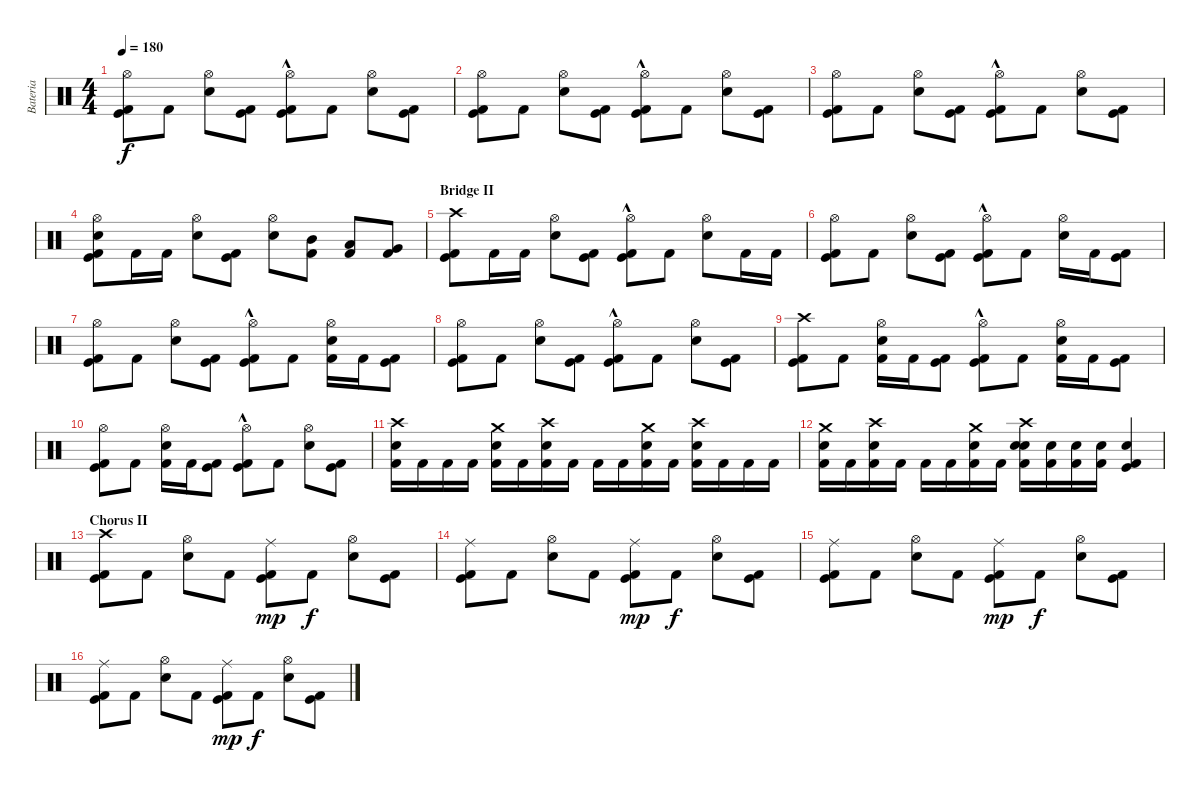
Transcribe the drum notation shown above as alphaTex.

\track ("Bateria" "Bateria") {instrument percussion}
\staff {score}
\articulation defaults
\ts (4 4)
\tempo 180
\clef neutral
\ks c
("Hi-Hat (open)" "Kick (hit)" "Kick (hit) 2").8{dy f} "Kick (hit) 2".8 ("Hi-Hat (open)" "Snare (hit) 2").8 ("Kick (hit)" "Kick (hit) 2").8 ("Hi-Hat (open)"{hac} "Kick (hit)" "Kick (hit) 2").8 "Kick (hit) 2".8 ("Hi-Hat (open)" "Snare (hit) 2").8 ("Kick (hit)" "Kick (hit) 2").8 |
("Hi-Hat (open)" "Kick (hit)" "Kick (hit) 2").8 "Kick (hit) 2".8 ("Hi-Hat (open)" "Snare (hit) 2").8 ("Kick (hit)" "Kick (hit) 2").8 ("Hi-Hat (open)"{hac} "Kick (hit)" "Kick (hit) 2").8 "Kick (hit) 2".8 ("Hi-Hat (open)" "Snare (hit) 2").8 ("Kick (hit)" "Kick (hit) 2").8 |
("Hi-Hat (open)" "Kick (hit)" "Kick (hit) 2").8 "Kick (hit) 2".8 ("Hi-Hat (open)" "Snare (hit) 2").8 ("Kick (hit)" "Kick (hit) 2").8 ("Hi-Hat (open)"{hac} "Kick (hit)" "Kick (hit) 2").8 "Kick (hit) 2".8 ("Hi-Hat (open)" "Snare (hit) 2").8 ("Kick (hit)" "Kick (hit) 2").8 |
("Hi-Hat (open)" "Electric Snare (hit)" "Kick (hit)" "Kick (hit) 2").8 "Kick (hit) 2".16 "Kick (hit) 2".16 ("Hi-Hat (open)" "Electric Snare (hit)").8 ("Kick (hit)" "Kick (hit) 2").8 ("Hi-Hat (open)" "Snare (hit) 2").8 ("Mid Tom (hit)" "Kick (hit) 2").8 ("Low Tom (hit)" "Kick (hit) 2").8 ("Very Low Tom (hit)" "Kick (hit) 2").8 |
\section ("" "Bridge II")
("Crash high (hit)" "Kick (hit)" "Kick (hit) 2").8 "Kick (hit) 2".16 "Kick (hit) 2".16 ("Hi-Hat (open)" "Snare (hit) 2").8 ("Kick (hit)" "Kick (hit) 2").8 ("Hi-Hat (open)"{hac} "Kick (hit)" "Kick (hit) 2").8 "Kick (hit) 2".8 ("Hi-Hat (open)" "Snare (hit) 2").8 "Kick (hit) 2".16 "Kick (hit) 2".16 |
("Hi-Hat (open)" "Kick (hit)" "Kick (hit) 2").8 "Kick (hit) 2".8 ("Hi-Hat (open)" "Snare (hit) 2").8 ("Kick (hit)" "Kick (hit) 2").8 ("Hi-Hat (open)"{hac} "Kick (hit)" "Kick (hit) 2").8 "Kick (hit) 2".8 ("Hi-Hat (open)" "Snare (hit) 2").16 "Kick (hit) 2".16 ("Kick (hit)" "Kick (hit) 2").8 |
("Hi-Hat (open)" "Kick (hit)" "Kick (hit) 2").8 "Kick (hit) 2".8 ("Hi-Hat (open)" "Snare (hit) 2").8 ("Kick (hit)" "Kick (hit) 2").8 ("Hi-Hat (open)"{hac} "Kick (hit)" "Kick (hit) 2").8 "Kick (hit) 2".8 ("Hi-Hat (open)" "Snare (hit) 2" "Kick (hit) 2").16 "Kick (hit) 2".16 ("Kick (hit)" "Kick (hit) 2").8 |
("Hi-Hat (open)" "Kick (hit)" "Kick (hit) 2").8 "Kick (hit) 2".8 ("Hi-Hat (open)" "Snare (hit) 2").8 ("Kick (hit)" "Kick (hit) 2").8 ("Hi-Hat (open)"{hac} "Kick (hit)" "Kick (hit) 2").8 "Kick (hit) 2".8 ("Hi-Hat (open)" "Snare (hit) 2").8 ("Kick (hit)" "Kick (hit) 2").8 |
("Crash high (hit)" "Kick (hit)" "Kick (hit) 2").8 "Kick (hit) 2".8 ("Hi-Hat (open)" "Snare (hit) 2" "Kick (hit) 2").16 "Kick (hit) 2".16 ("Kick (hit)" "Kick (hit) 2").8 ("Hi-Hat (open)"{hac} "Kick (hit)" "Kick (hit) 2").8 "Kick (hit) 2".8 ("Hi-Hat (open)" "Snare (hit) 2" "Kick (hit) 2").16 "Kick (hit) 2".16 ("Kick (hit)" "Kick (hit) 2").8 |
("Hi-Hat (open)" "Kick (hit)" "Kick (hit) 2").8 "Kick (hit) 2".8 ("Hi-Hat (open)" "Snare (hit) 2" "Kick (hit) 2").16 "Kick (hit) 2".16 ("Kick (hit)" "Kick (hit) 2").8 ("Hi-Hat (open)"{hac} "Kick (hit)" "Kick (hit) 2").8 "Kick (hit) 2".8 ("Hi-Hat (open)" "Snare (hit) 2").8 ("Kick (hit)" "Kick (hit) 2").8 |
("Crash high (hit)" "Snare (hit) 2" "Kick (hit) 2").16 "Kick (hit) 2".16 "Kick (hit) 2".16 "Kick (hit) 2".16 ("Crash medium (hit)" "Snare (hit) 2" "Kick (hit) 2").16 "Kick (hit) 2".16 ("Crash high (hit)" "Snare (hit) 2" "Kick (hit) 2").16 "Kick (hit) 2".16 "Kick (hit) 2".16 "Kick (hit) 2".16 ("Crash medium (hit)" "Snare (hit) 2" "Kick (hit) 2").16 "Kick (hit) 2".16 ("Crash high (hit)" "Snare (hit) 2" "Kick (hit) 2").16 "Kick (hit) 2".16 "Kick (hit) 2".16 "Kick (hit) 2".16 |
("Crash medium (hit)" "Snare (hit) 2" "Kick (hit) 2").16 "Kick (hit) 2".16 ("Crash high (hit)" "Snare (hit) 2" "Kick (hit) 2").16 "Kick (hit) 2".16 "Kick (hit) 2".16 "Kick (hit) 2".16 ("Crash medium (hit)" "Snare (hit) 2" "Kick (hit) 2").16 "Kick (hit) 2".16 ("Crash high (hit)" "Snare (hit) 2" "Electric Snare (hit)" "Kick (hit) 2").16 ("Electric Snare (hit)" "Kick (hit) 2").16 ("Electric Snare (hit)" "Kick (hit) 2").16 ("Electric Snare (hit)" "Kick (hit) 2").16 ("Snare (hit) 2" "Kick (hit)" "Kick (hit) 2").4 |
\section ("" "Chorus II")
("Crash high (hit)" "Kick (hit)" "Kick (hit) 2").8 "Kick (hit) 2".8 ("Hi-Hat (open)" "Snare (hit) 2").8 "Kick (hit) 2".8 ("Ride (middle)" "Kick (hit)" "Kick (hit) 2").8{dy mp} "Kick (hit) 2".8{dy f} ("Hi-Hat (open)" "Snare (hit) 2").8 ("Kick (hit)" "Kick (hit) 2").8 |
("Ride (middle)" "Kick (hit)" "Kick (hit) 2").8 "Kick (hit) 2".8 ("Hi-Hat (open)" "Snare (hit) 2").8 "Kick (hit) 2".8 ("Ride (middle)" "Kick (hit)" "Kick (hit) 2").8{dy mp} "Kick (hit) 2".8{dy f} ("Hi-Hat (open)" "Snare (hit) 2").8 ("Kick (hit)" "Kick (hit) 2").8 |
("Ride (middle)" "Kick (hit)" "Kick (hit) 2").8 "Kick (hit) 2".8 ("Hi-Hat (open)" "Snare (hit) 2").8 "Kick (hit) 2".8 ("Ride (middle)" "Kick (hit)" "Kick (hit) 2").8{dy mp} "Kick (hit) 2".8{dy f} ("Hi-Hat (open)" "Snare (hit) 2").8 ("Kick (hit)" "Kick (hit) 2").8 |
("Ride (middle)" "Kick (hit)" "Kick (hit) 2").8 "Kick (hit) 2".8 ("Hi-Hat (open)" "Snare (hit) 2").8 "Kick (hit) 2".8 ("Ride (middle)" "Kick (hit)" "Kick (hit) 2").8{dy mp} "Kick (hit) 2".8{dy f} ("Hi-Hat (open)" "Snare (hit) 2").8 ("Kick (hit)" "Kick (hit) 2").8
